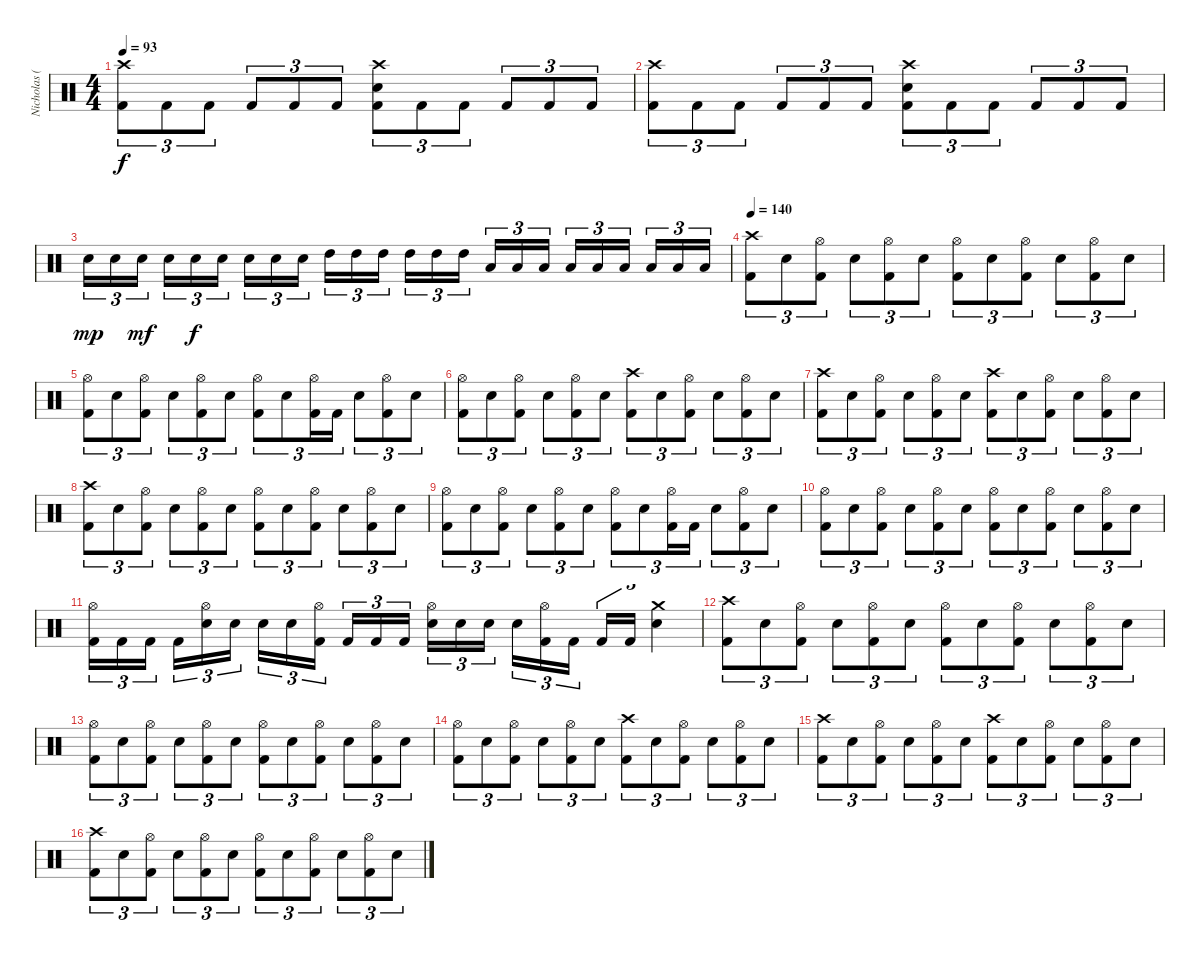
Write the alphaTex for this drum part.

\track ("Nicholas (Drums)" "Nicholas (") {instrument percussion}
\staff {score}
\articulation defaults
\ts (4 4)
\tempo 93
\clef neutral
\ks c
("Crash high (hit)" "Kick (hit) 2").8{tu (3 2) dy f} "Kick (hit) 2".8{tu (3 2)} "Kick (hit) 2".8{tu (3 2)} "Kick (hit) 2".8{tu (3 2)} "Kick (hit) 2".8{tu (3 2)} "Kick (hit) 2".8{tu (3 2)} ("Crash high (hit)" "Electric Snare (hit)" "Kick (hit) 2").8{tu (3 2)} "Kick (hit) 2".8{tu (3 2)} "Kick (hit) 2".8{tu (3 2)} "Kick (hit) 2".8{tu (3 2)} "Kick (hit) 2".8{tu (3 2)} "Kick (hit) 2".8{tu (3 2)} |
("Crash high (hit)" "Kick (hit) 2").8{tu (3 2)} "Kick (hit) 2".8{tu (3 2)} "Kick (hit) 2".8{tu (3 2)} "Kick (hit) 2".8{tu (3 2)} "Kick (hit) 2".8{tu (3 2)} "Kick (hit) 2".8{tu (3 2)} ("Crash high (hit)" "Electric Snare (hit)" "Kick (hit) 2").8{tu (3 2)} "Kick (hit) 2".8{tu (3 2)} "Kick (hit) 2".8{tu (3 2)} "Kick (hit) 2".8{tu (3 2)} "Kick (hit) 2".8{tu (3 2)} "Kick (hit) 2".8{tu (3 2)} |
"Electric Snare (hit)".16{tu (3 2) dy mp} "Electric Snare (hit)".16{tu (3 2)} "Electric Snare (hit)".16{tu (3 2) dy mf} "Electric Snare (hit)".16{tu (3 2)} "Electric Snare (hit)".16{tu (3 2) dy f} "Electric Snare (hit)".16{tu (3 2)} "Electric Snare (hit)".16{tu (3 2)} "Electric Snare (hit)".16{tu (3 2)} "Electric Snare (hit)".16{tu (3 2)} "High Tom (hit)".16{tu (3 2)} "High Tom (hit)".16{tu (3 2)} "High Tom (hit)".16{tu (3 2)} "High Tom (hit)".16{tu (3 2)} "High Tom (hit)".16{tu (3 2)} "High Tom (hit)".16{tu (3 2)} "Low Tom (hit)".16{tu (3 2)} "Low Tom (hit)".16{tu (3 2)} "Low Tom (hit)".16{tu (3 2)} "Low Tom (hit)".16{tu (3 2)} "Low Tom (hit)".16{tu (3 2)} "Low Tom (hit)".16{tu (3 2)} "Low Floor Tom (hit)".16{tu (3 2)} "Low Floor Tom (hit)".16{tu (3 2)} "Low Floor Tom (hit)".16{tu (3 2)} |
\tempo 140
("Crash high (hit)" "Kick (hit) 2").8{tu (3 2)} "Electric Snare (hit)".8{tu (3 2)} ("Hi-Hat (open)" "Kick (hit) 2").8{tu (3 2)} "Electric Snare (hit)".8{tu (3 2)} ("Hi-Hat (open)" "Kick (hit) 2").8{tu (3 2)} "Electric Snare (hit)".8{tu (3 2)} ("Hi-Hat (open)" "Kick (hit) 2").8{tu (3 2)} "Electric Snare (hit)".8{tu (3 2)} ("Hi-Hat (open)" "Kick (hit) 2").8{tu (3 2)} "Electric Snare (hit)".8{tu (3 2)} ("Hi-Hat (open)" "Kick (hit) 2").8{tu (3 2)} "Electric Snare (hit)".8{tu (3 2)} |
("Hi-Hat (open)" "Kick (hit) 2").8{tu (3 2)} "Electric Snare (hit)".8{tu (3 2)} ("Hi-Hat (open)" "Kick (hit) 2").8{tu (3 2)} "Electric Snare (hit)".8{tu (3 2)} ("Hi-Hat (open)" "Kick (hit) 2").8{tu (3 2)} "Electric Snare (hit)".8{tu (3 2)} ("Hi-Hat (open)" "Kick (hit) 2").8{tu (3 2)} "Electric Snare (hit)".8{tu (3 2)} ("Hi-Hat (open)" "Kick (hit) 2").16{tu (3 2)} "Kick (hit) 2".16{tu (3 2)} "Electric Snare (hit)".8{tu (3 2)} ("Hi-Hat (open)" "Kick (hit) 2").8{tu (3 2)} "Electric Snare (hit)".8{tu (3 2)} |
("Hi-Hat (open)" "Kick (hit) 2").8{tu (3 2)} "Electric Snare (hit)".8{tu (3 2)} ("Hi-Hat (open)" "Kick (hit) 2").8{tu (3 2)} "Electric Snare (hit)".8{tu (3 2)} ("Hi-Hat (open)" "Kick (hit) 2").8{tu (3 2)} "Electric Snare (hit)".8{tu (3 2)} ("Crash high (hit)" "Kick (hit) 2").8{tu (3 2)} "Electric Snare (hit)".8{tu (3 2)} ("Hi-Hat (open)" "Kick (hit) 2").8{tu (3 2)} "Electric Snare (hit)".8{tu (3 2)} ("Hi-Hat (open)" "Kick (hit) 2").8{tu (3 2)} "Electric Snare (hit)".8{tu (3 2)} |
("Crash high (hit)" "Kick (hit) 2").8{tu (3 2)} "Electric Snare (hit)".8{tu (3 2)} ("Hi-Hat (open)" "Kick (hit) 2").8{tu (3 2)} "Electric Snare (hit)".8{tu (3 2)} ("Hi-Hat (open)" "Kick (hit) 2").8{tu (3 2)} "Electric Snare (hit)".8{tu (3 2)} ("Crash high (hit)" "Kick (hit) 2").8{tu (3 2)} "Electric Snare (hit)".8{tu (3 2)} ("Hi-Hat (open)" "Kick (hit) 2").8{tu (3 2)} "Electric Snare (hit)".8{tu (3 2)} ("Hi-Hat (open)" "Kick (hit) 2").8{tu (3 2)} "Electric Snare (hit)".8{tu (3 2)} |
("Crash high (hit)" "Kick (hit) 2").8{tu (3 2)} "Electric Snare (hit)".8{tu (3 2)} ("Hi-Hat (open)" "Kick (hit) 2").8{tu (3 2)} "Electric Snare (hit)".8{tu (3 2)} ("Hi-Hat (open)" "Kick (hit) 2").8{tu (3 2)} "Electric Snare (hit)".8{tu (3 2)} ("Hi-Hat (open)" "Kick (hit) 2").8{tu (3 2)} "Electric Snare (hit)".8{tu (3 2)} ("Hi-Hat (open)" "Kick (hit) 2").8{tu (3 2)} "Electric Snare (hit)".8{tu (3 2)} ("Hi-Hat (open)" "Kick (hit) 2").8{tu (3 2)} "Electric Snare (hit)".8{tu (3 2)} |
("Hi-Hat (open)" "Kick (hit) 2").8{tu (3 2)} "Electric Snare (hit)".8{tu (3 2)} ("Hi-Hat (open)" "Kick (hit) 2").8{tu (3 2)} "Electric Snare (hit)".8{tu (3 2)} ("Hi-Hat (open)" "Kick (hit) 2").8{tu (3 2)} "Electric Snare (hit)".8{tu (3 2)} ("Hi-Hat (open)" "Kick (hit) 2").8{tu (3 2)} "Electric Snare (hit)".8{tu (3 2)} ("Hi-Hat (open)" "Kick (hit) 2").16{tu (3 2)} "Kick (hit) 2".16{tu (3 2)} "Electric Snare (hit)".8{tu (3 2)} ("Hi-Hat (open)" "Kick (hit) 2").8{tu (3 2)} "Electric Snare (hit)".8{tu (3 2)} |
("Hi-Hat (open)" "Kick (hit) 2").8{tu (3 2)} "Electric Snare (hit)".8{tu (3 2)} ("Hi-Hat (open)" "Kick (hit) 2").8{tu (3 2)} "Electric Snare (hit)".8{tu (3 2)} ("Hi-Hat (open)" "Kick (hit) 2").8{tu (3 2)} "Electric Snare (hit)".8{tu (3 2)} ("Hi-Hat (open)" "Kick (hit) 2").8{tu (3 2)} "Electric Snare (hit)".8{tu (3 2)} ("Hi-Hat (open)" "Kick (hit) 2").8{tu (3 2)} "Electric Snare (hit)".8{tu (3 2)} ("Hi-Hat (open)" "Kick (hit) 2").8{tu (3 2)} "Electric Snare (hit)".8{tu (3 2)} |
("Hi-Hat (open)" "Kick (hit) 2").16{tu (3 2)} "Kick (hit) 2".16{tu (3 2)} "Kick (hit) 2".16{tu (3 2)} "Kick (hit) 2".16{tu (3 2)} ("Hi-Hat (open)" "Electric Snare (hit)").16{tu (3 2)} "Electric Snare (hit)".16{tu (3 2)} "Electric Snare (hit)".16{tu (3 2)} "Electric Snare (hit)".16{tu (3 2)} ("Hi-Hat (open)" "Kick (hit) 2").16{tu (3 2)} "Kick (hit) 2".16{tu (3 2)} "Kick (hit) 2".16{tu (3 2)} "Kick (hit) 2".16{tu (3 2)} ("Hi-Hat (open)" "Electric Snare (hit)").16{tu (3 2)} "Electric Snare (hit)".16{tu (3 2)} "Electric Snare (hit)".16{tu (3 2)} "Electric Snare (hit)".16{tu (3 2)} ("Hi-Hat (open)" "Kick (hit) 2").16{tu (3 2)} "Kick (hit) 2".16{tu (3 2)} "Kick (hit) 2".16{tu (3 2)} "Kick (hit) 2".16{tu (3 2)} ("Crash medium (hit)" "Electric Snare (hit)").4{tu (3 2)} |
("Crash high (hit)" "Kick (hit) 2").8{tu (3 2)} "Electric Snare (hit)".8{tu (3 2)} ("Hi-Hat (open)" "Kick (hit) 2").8{tu (3 2)} "Electric Snare (hit)".8{tu (3 2)} ("Hi-Hat (open)" "Kick (hit) 2").8{tu (3 2)} "Electric Snare (hit)".8{tu (3 2)} ("Hi-Hat (open)" "Kick (hit) 2").8{tu (3 2)} "Electric Snare (hit)".8{tu (3 2)} ("Hi-Hat (open)" "Kick (hit) 2").8{tu (3 2)} "Electric Snare (hit)".8{tu (3 2)} ("Hi-Hat (open)" "Kick (hit) 2").8{tu (3 2)} "Electric Snare (hit)".8{tu (3 2)} |
("Hi-Hat (open)" "Kick (hit) 2").8{tu (3 2)} "Electric Snare (hit)".8{tu (3 2)} ("Hi-Hat (open)" "Kick (hit) 2").8{tu (3 2)} "Electric Snare (hit)".8{tu (3 2)} ("Hi-Hat (open)" "Kick (hit) 2").8{tu (3 2)} "Electric Snare (hit)".8{tu (3 2)} ("Hi-Hat (open)" "Kick (hit) 2").8{tu (3 2)} "Electric Snare (hit)".8{tu (3 2)} ("Hi-Hat (open)" "Kick (hit) 2").8{tu (3 2)} "Electric Snare (hit)".8{tu (3 2)} ("Hi-Hat (open)" "Kick (hit) 2").8{tu (3 2)} "Electric Snare (hit)".8{tu (3 2)} |
("Hi-Hat (open)" "Kick (hit) 2").8{tu (3 2)} "Electric Snare (hit)".8{tu (3 2)} ("Hi-Hat (open)" "Kick (hit) 2").8{tu (3 2)} "Electric Snare (hit)".8{tu (3 2)} ("Hi-Hat (open)" "Kick (hit) 2").8{tu (3 2)} "Electric Snare (hit)".8{tu (3 2)} ("Crash high (hit)" "Kick (hit) 2").8{tu (3 2)} "Electric Snare (hit)".8{tu (3 2)} ("Hi-Hat (open)" "Kick (hit) 2").8{tu (3 2)} "Electric Snare (hit)".8{tu (3 2)} ("Hi-Hat (open)" "Kick (hit) 2").8{tu (3 2)} "Electric Snare (hit)".8{tu (3 2)} |
("Crash high (hit)" "Kick (hit) 2").8{tu (3 2)} "Electric Snare (hit)".8{tu (3 2)} ("Hi-Hat (open)" "Kick (hit) 2").8{tu (3 2)} "Electric Snare (hit)".8{tu (3 2)} ("Hi-Hat (open)" "Kick (hit) 2").8{tu (3 2)} "Electric Snare (hit)".8{tu (3 2)} ("Crash high (hit)" "Kick (hit) 2").8{tu (3 2)} "Electric Snare (hit)".8{tu (3 2)} ("Hi-Hat (open)" "Kick (hit) 2").8{tu (3 2)} "Electric Snare (hit)".8{tu (3 2)} ("Hi-Hat (open)" "Kick (hit) 2").8{tu (3 2)} "Electric Snare (hit)".8{tu (3 2)} |
("Crash high (hit)" "Kick (hit) 2").8{tu (3 2)} "Electric Snare (hit)".8{tu (3 2)} ("Hi-Hat (open)" "Kick (hit) 2").8{tu (3 2)} "Electric Snare (hit)".8{tu (3 2)} ("Hi-Hat (open)" "Kick (hit) 2").8{tu (3 2)} "Electric Snare (hit)".8{tu (3 2)} ("Hi-Hat (open)" "Kick (hit) 2").8{tu (3 2)} "Electric Snare (hit)".8{tu (3 2)} ("Hi-Hat (open)" "Kick (hit) 2").8{tu (3 2)} "Electric Snare (hit)".8{tu (3 2)} ("Hi-Hat (open)" "Kick (hit) 2").8{tu (3 2)} "Electric Snare (hit)".8{tu (3 2)}
